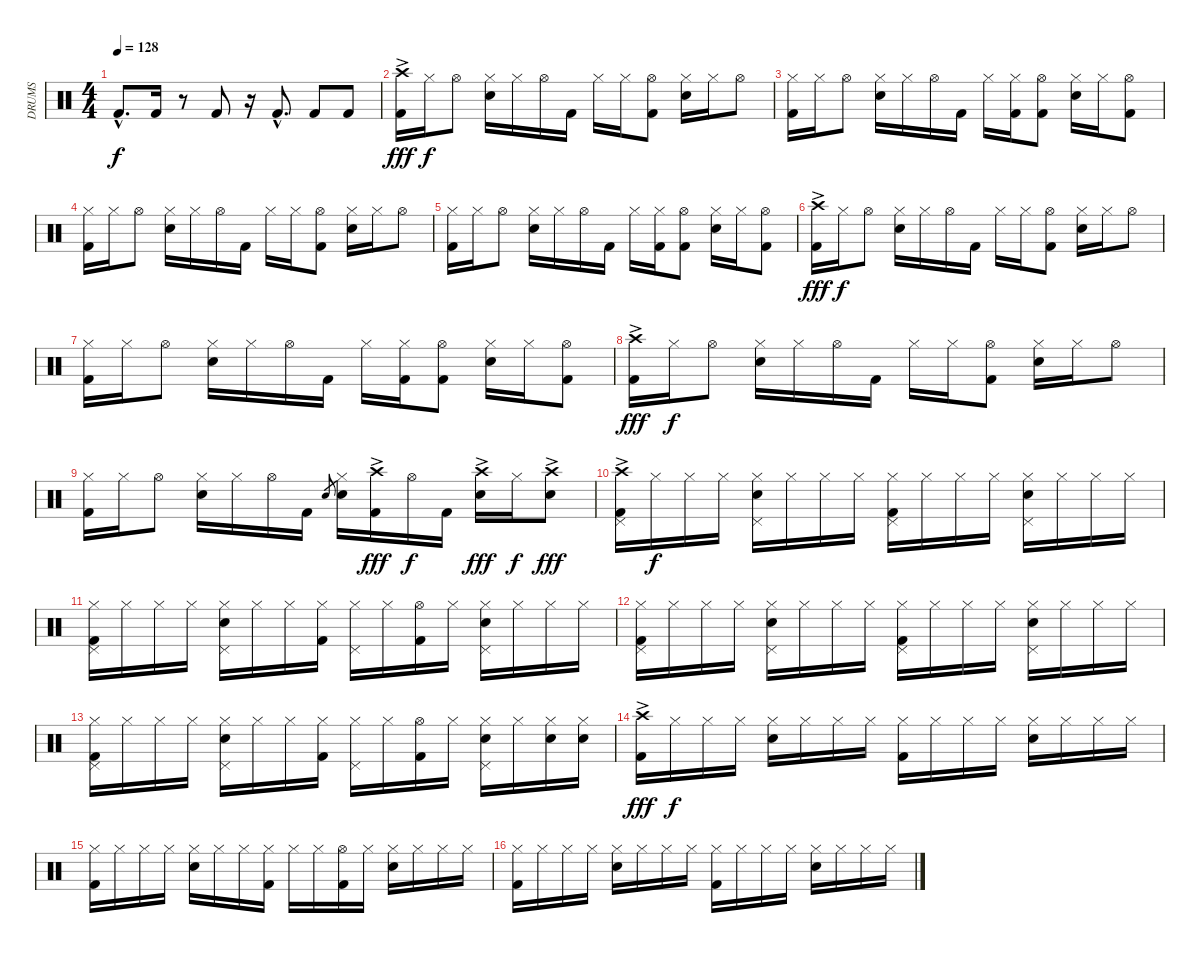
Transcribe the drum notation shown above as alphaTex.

\track ("DRUMS" "DRUMS") {instrument percussion}
\staff {score}
\articulation defaults
\ts (4 4)
\tempo 128
\clef neutral
\ks c "Kick (hit) 2"{hac}.8{d dy f} "Kick (hit) 2".16
r.8 "Kick (hit) 2".8 r.16 "Kick (hit) 2"{hac}.8{d} "Kick (hit) 2".8 "Kick (hit) 2".8 |
("Crash high (hit)"{ac} "Kick (hit) 2").16{dy fff} "Hi-Hat (closed)".16{dy f} "Hi-Hat (open)".8 ("Hi-Hat (closed)" "Snare (hit) 2").16 "Hi-Hat (closed)".16 "Hi-Hat (open)".16 "Kick (hit) 2".16 "Hi-Hat (closed)".16 "Hi-Hat (closed)".16 ("Hi-Hat (open)" "Kick (hit) 2").8 ("Hi-Hat (closed)" "Snare (hit) 2").16 "Hi-Hat (closed)".16 "Hi-Hat (open)".8 |
("Hi-Hat (closed)" "Kick (hit) 2").16 "Hi-Hat (closed)".16 "Hi-Hat (open)".8 ("Hi-Hat (closed)" "Snare (hit) 2").16 "Hi-Hat (closed)".16 "Hi-Hat (open)".16 "Kick (hit) 2".16 "Hi-Hat (closed)".16 ("Hi-Hat (closed)" "Kick (hit) 2").16 ("Hi-Hat (open)" "Kick (hit) 2").8 ("Hi-Hat (closed)" "Snare (hit) 2").16 "Hi-Hat (closed)".16 ("Hi-Hat (open)" "Kick (hit) 2").8 |
("Hi-Hat (closed)" "Kick (hit) 2").16 "Hi-Hat (closed)".16 "Hi-Hat (open)".8 ("Hi-Hat (closed)" "Snare (hit) 2").16 "Hi-Hat (closed)".16 "Hi-Hat (open)".16 "Kick (hit) 2".16 "Hi-Hat (closed)".16 "Hi-Hat (closed)".16 ("Hi-Hat (open)" "Kick (hit) 2").8 ("Hi-Hat (closed)" "Snare (hit) 2").16 "Hi-Hat (closed)".16 "Hi-Hat (open)".8 |
("Hi-Hat (closed)" "Kick (hit) 2").16 "Hi-Hat (closed)".16 "Hi-Hat (open)".8 ("Hi-Hat (closed)" "Snare (hit) 2").16 "Hi-Hat (closed)".16 "Hi-Hat (open)".16 "Kick (hit) 2".16 "Hi-Hat (closed)".16 ("Hi-Hat (closed)" "Kick (hit) 2").16 ("Hi-Hat (open)" "Kick (hit) 2").8 ("Hi-Hat (closed)" "Snare (hit) 2").16 "Hi-Hat (closed)".16 ("Hi-Hat (open)" "Kick (hit) 2").8 |
("Crash high (hit)"{ac} "Kick (hit) 2").16{dy fff} "Hi-Hat (closed)".16{dy f} "Hi-Hat (open)".8 ("Hi-Hat (closed)" "Snare (hit) 2").16 "Hi-Hat (closed)".16 "Hi-Hat (open)".16 "Kick (hit) 2".16 "Hi-Hat (closed)".16 "Hi-Hat (closed)".16 ("Hi-Hat (open)" "Kick (hit) 2").8 ("Hi-Hat (closed)" "Snare (hit) 2").16 "Hi-Hat (closed)".16 "Hi-Hat (open)".8 |
("Hi-Hat (closed)" "Kick (hit) 2").16 "Hi-Hat (closed)".16 "Hi-Hat (open)".8 ("Hi-Hat (closed)" "Snare (hit) 2").16 "Hi-Hat (closed)".16 "Hi-Hat (open)".16 "Kick (hit) 2".16 "Hi-Hat (closed)".16 ("Hi-Hat (closed)" "Kick (hit) 2").16 ("Hi-Hat (open)" "Kick (hit) 2").8 ("Hi-Hat (closed)" "Snare (hit) 2").16 "Hi-Hat (closed)".16 ("Hi-Hat (open)" "Kick (hit) 2").8 |
("Crash high (hit)"{ac} "Kick (hit) 2").16{dy fff} "Hi-Hat (closed)".16{dy f} "Hi-Hat (open)".8 ("Hi-Hat (closed)" "Snare (hit) 2").16 "Hi-Hat (closed)".16 "Hi-Hat (open)".16 "Kick (hit) 2".16 "Hi-Hat (closed)".16 "Hi-Hat (closed)".16 ("Hi-Hat (open)" "Kick (hit) 2").8 ("Hi-Hat (closed)" "Snare (hit) 2").16 "Hi-Hat (closed)".16 "Hi-Hat (open)".8 |
("Hi-Hat (closed)" "Kick (hit) 2").16 "Hi-Hat (closed)".16 "Hi-Hat (open)".8 ("Hi-Hat (closed)" "Snare (hit) 2").16 "Hi-Hat (closed)".16 "Hi-Hat (open)".16 "Kick (hit) 2".16 "Snare (hit) 2".8{gr} ("Hi-Hat (closed)" "Snare (hit) 2").16 ("Crash high (hit)"{ac} "Kick (hit) 2").16{dy fff} "Hi-Hat (open)".16{dy f} "Kick (hit) 2".16 ("Crash high (hit)"{ac} "Snare (hit) 2").16{dy fff} "Hi-Hat (closed)".16{dy f} ("Crash high (hit)"{ac} "Snare (hit) 2").8{dy fff} |
("Crash high (hit)"{ac} "Pedal Hi-Hat (hit)" "Kick (hit) 2").16 "Hi-Hat (closed)".16{dy f} "Hi-Hat (closed)".16 "Hi-Hat (closed)".16 ("Hi-Hat (closed)" "Pedal Hi-Hat (hit)" "Snare (hit) 2").16 "Hi-Hat (closed)".16 "Hi-Hat (closed)".16 "Hi-Hat (closed)".16 ("Hi-Hat (closed)" "Pedal Hi-Hat (hit)" "Kick (hit) 2").16 "Hi-Hat (closed)".16 "Hi-Hat (closed)".16 "Hi-Hat (closed)".16 ("Hi-Hat (closed)" "Pedal Hi-Hat (hit)" "Snare (hit) 2").16 "Hi-Hat (closed)".16 "Hi-Hat (closed)".16 "Hi-Hat (closed)".16 |
("Hi-Hat (closed)" "Pedal Hi-Hat (hit)" "Kick (hit) 2").16 "Hi-Hat (closed)".16 "Hi-Hat (closed)".16 "Hi-Hat (closed)".16 ("Hi-Hat (closed)" "Pedal Hi-Hat (hit)" "Snare (hit) 2").16 "Hi-Hat (closed)".16 "Hi-Hat (closed)".16 ("Hi-Hat (closed)" "Kick (hit) 2").16 ("Hi-Hat (closed)" "Pedal Hi-Hat (hit)").16 "Hi-Hat (closed)".16 ("Hi-Hat (open)" "Kick (hit) 2").16 "Hi-Hat (closed)".16 ("Hi-Hat (closed)" "Pedal Hi-Hat (hit)" "Snare (hit) 2").16 "Hi-Hat (closed)".16 "Hi-Hat (closed)".16 "Hi-Hat (closed)".16 |
("Hi-Hat (closed)" "Pedal Hi-Hat (hit)" "Kick (hit) 2").16 "Hi-Hat (closed)".16 "Hi-Hat (closed)".16 "Hi-Hat (closed)".16 ("Hi-Hat (closed)" "Pedal Hi-Hat (hit)" "Snare (hit) 2").16 "Hi-Hat (closed)".16 "Hi-Hat (closed)".16 "Hi-Hat (closed)".16 ("Hi-Hat (closed)" "Pedal Hi-Hat (hit)" "Kick (hit) 2").16 "Hi-Hat (closed)".16 "Hi-Hat (closed)".16 "Hi-Hat (closed)".16 ("Hi-Hat (closed)" "Pedal Hi-Hat (hit)" "Snare (hit) 2").16 "Hi-Hat (closed)".16 "Hi-Hat (closed)".16 "Hi-Hat (closed)".16 |
("Hi-Hat (closed)" "Pedal Hi-Hat (hit)" "Kick (hit) 2").16 "Hi-Hat (closed)".16 "Hi-Hat (closed)".16 "Hi-Hat (closed)".16 ("Hi-Hat (closed)" "Pedal Hi-Hat (hit)" "Snare (hit) 2").16 "Hi-Hat (closed)".16 "Hi-Hat (closed)".16 ("Hi-Hat (closed)" "Kick (hit) 2").16 ("Hi-Hat (closed)" "Pedal Hi-Hat (hit)").16 "Hi-Hat (closed)".16 ("Hi-Hat (open)" "Kick (hit) 2").16 "Hi-Hat (closed)".16 ("Hi-Hat (closed)" "Pedal Hi-Hat (hit)" "Snare (hit) 2").16 "Hi-Hat (closed)".16 ("Hi-Hat (closed)" "Snare (hit) 2").16 ("Hi-Hat (closed)" "Snare (hit) 2").16 |
("Crash high (hit)"{ac} "Kick (hit) 2").16{dy fff} "Hi-Hat (closed)".16{dy f} "Hi-Hat (closed)".16 "Hi-Hat (closed)".16 ("Hi-Hat (closed)" "Snare (hit) 2").16 "Hi-Hat (closed)".16 "Hi-Hat (closed)".16 "Hi-Hat (closed)".16 ("Hi-Hat (closed)" "Kick (hit) 2").16 "Hi-Hat (closed)".16 "Hi-Hat (closed)".16 "Hi-Hat (closed)".16 ("Hi-Hat (closed)" "Snare (hit) 2").16 "Hi-Hat (closed)".16 "Hi-Hat (closed)".16 "Hi-Hat (closed)".16 |
("Hi-Hat (closed)" "Kick (hit) 2").16 "Hi-Hat (closed)".16 "Hi-Hat (closed)".16 "Hi-Hat (closed)".16 ("Hi-Hat (closed)" "Snare (hit) 2").16 "Hi-Hat (closed)".16 "Hi-Hat (closed)".16 ("Hi-Hat (closed)" "Kick (hit) 2").16 "Hi-Hat (closed)".16 "Hi-Hat (closed)".16 ("Hi-Hat (open)" "Kick (hit) 2").16 "Hi-Hat (closed)".16 ("Hi-Hat (closed)" "Snare (hit) 2").16 "Hi-Hat (closed)".16 "Hi-Hat (closed)".16 "Hi-Hat (closed)".16 |
("Hi-Hat (closed)" "Kick (hit) 2").16 "Hi-Hat (closed)".16 "Hi-Hat (closed)".16 "Hi-Hat (closed)".16 ("Hi-Hat (closed)" "Snare (hit) 2").16 "Hi-Hat (closed)".16 "Hi-Hat (closed)".16 "Hi-Hat (closed)".16 ("Hi-Hat (closed)" "Kick (hit) 2").16 "Hi-Hat (closed)".16 "Hi-Hat (closed)".16 "Hi-Hat (closed)".16 ("Hi-Hat (closed)" "Snare (hit) 2").16 "Hi-Hat (closed)".16 "Hi-Hat (closed)".16 "Hi-Hat (closed)".16
